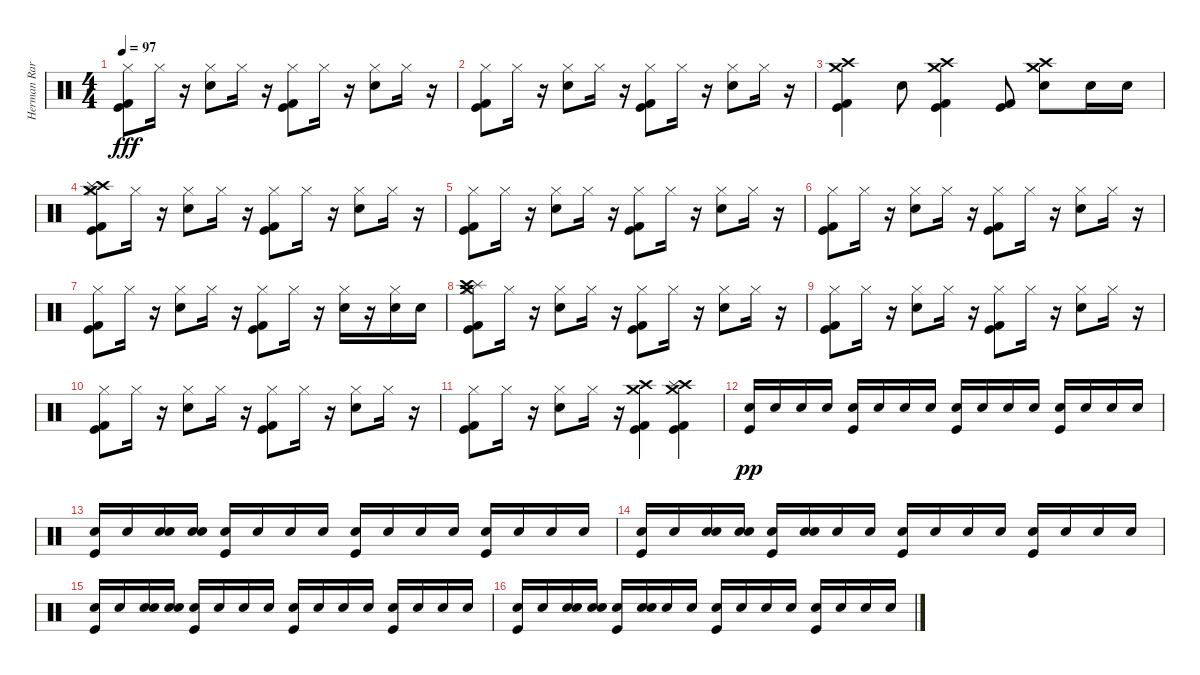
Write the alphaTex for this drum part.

\track ("Herman Rarebel" "Herman Rar") {instrument percussion}
\staff {score}
\articulation defaults
\ts (4 4)
\tempo 97
\clef neutral
\ks c
("Hi-Hat (closed)" "Kick (hit)" "Kick (hit) 2").8{dy fff} "Hi-Hat (closed)".16 r.16 ("Snare (hit) 2" "Hi-Hat (closed)").8 "Hi-Hat (closed)".16 r.16 ("Kick (hit) 2" "Kick (hit)" "Hi-Hat (closed)").8 "Hi-Hat (closed)".16 r.16 ("Snare (hit) 2" "Hi-Hat (closed)").8 "Hi-Hat (closed)".16 r.16 |
("Hi-Hat (closed)" "Kick (hit)" "Kick (hit) 2").8 "Hi-Hat (closed)".16 r.16 ("Snare (hit) 2" "Hi-Hat (closed)").8 "Hi-Hat (closed)".16 r.16 ("Kick (hit) 2" "Kick (hit)" "Hi-Hat (closed)").8 "Hi-Hat (closed)".16 r.16 ("Snare (hit) 2" "Hi-Hat (closed)").8 "Hi-Hat (closed)".16 r.16 |
("Kick (hit) 2" "Kick (hit)" "Crash high (hit)" "Crash medium (hit)").4 "Snare (hit) 2".8 ("Crash medium (hit)" "Crash high (hit)" "Kick (hit)" "Kick (hit) 2").4 ("Kick (hit)" "Kick (hit) 2").8 ("Crash medium (hit)" "Crash high (hit)" "Snare (hit) 2").8 "Snare (hit) 2".16 "Snare (hit) 2".16 |
("Hi-Hat (closed)" "Crash high (hit)" "Splash (hit)" "Crash medium (hit)" "Kick (hit)" "Kick (hit) 2").8 "Hi-Hat (closed)".16 r.16 ("Snare (hit) 2" "Hi-Hat (closed)").8 "Hi-Hat (closed)".16 r.16 ("Kick (hit) 2" "Kick (hit)" "Hi-Hat (closed)").8 "Hi-Hat (closed)".16 r.16 ("Snare (hit) 2" "Hi-Hat (closed)").8 "Hi-Hat (closed)".16 r.16 |
("Hi-Hat (closed)" "Kick (hit)" "Kick (hit) 2").8 "Hi-Hat (closed)".16 r.16 ("Snare (hit) 2" "Hi-Hat (closed)").8 "Hi-Hat (closed)".16 r.16 ("Kick (hit) 2" "Kick (hit)" "Hi-Hat (closed)").8 "Hi-Hat (closed)".16 r.16 ("Snare (hit) 2" "Hi-Hat (closed)").8 "Hi-Hat (closed)".16 r.16 |
("Hi-Hat (closed)" "Kick (hit)" "Kick (hit) 2").8 "Hi-Hat (closed)".16 r.16 ("Snare (hit) 2" "Hi-Hat (closed)").8 "Hi-Hat (closed)".16 r.16 ("Kick (hit) 2" "Kick (hit)" "Hi-Hat (closed)").8 "Hi-Hat (closed)".16 r.16 ("Snare (hit) 2" "Hi-Hat (closed)").8 "Hi-Hat (closed)".16 r.16 |
("Hi-Hat (closed)" "Kick (hit)" "Kick (hit) 2").8 "Hi-Hat (closed)".16 r.16 ("Snare (hit) 2" "Hi-Hat (closed)").8 "Hi-Hat (closed)".16 r.16 ("Kick (hit) 2" "Kick (hit)" "Hi-Hat (closed)").8 "Hi-Hat (closed)".16 r.16 ("Hi-Hat (closed)" "Snare (hit) 2").16 r.16 ("Hi-Hat (closed)" "Snare (hit) 2").16 "Snare (hit) 2".16 |
("Kick (hit) 2" "Kick (hit)" "Crash medium (hit)" "Splash (hit)" "Crash high (hit)" "Hi-Hat (closed)").8 "Hi-Hat (closed)".16 r.16 ("Snare (hit) 2" "Hi-Hat (closed)").8 "Hi-Hat (closed)".16 r.16 ("Kick (hit) 2" "Kick (hit)" "Hi-Hat (closed)").8 "Hi-Hat (closed)".16 r.16 ("Snare (hit) 2" "Hi-Hat (closed)").8 "Hi-Hat (closed)".16 r.16 |
("Hi-Hat (closed)" "Kick (hit)" "Kick (hit) 2").8 "Hi-Hat (closed)".16 r.16 ("Snare (hit) 2" "Hi-Hat (closed)").8 "Hi-Hat (closed)".16 r.16 ("Kick (hit) 2" "Kick (hit)" "Hi-Hat (closed)").8 "Hi-Hat (closed)".16 r.16 ("Snare (hit) 2" "Hi-Hat (closed)").8 "Hi-Hat (closed)".16 r.16 |
("Hi-Hat (closed)" "Kick (hit)" "Kick (hit) 2").8 "Hi-Hat (closed)".16 r.16 ("Snare (hit) 2" "Hi-Hat (closed)").8 "Hi-Hat (closed)".16 r.16 ("Kick (hit) 2" "Kick (hit)" "Hi-Hat (closed)").8 "Hi-Hat (closed)".16 r.16 ("Snare (hit) 2" "Hi-Hat (closed)").8 "Hi-Hat (closed)".16 r.16 |
("Hi-Hat (closed)" "Kick (hit)" "Kick (hit) 2").8 "Hi-Hat (closed)".16 r.16 ("Hi-Hat (closed)" "Snare (hit) 2").8 "Hi-Hat (closed)".16 r.16 ("Kick (hit) 2" "Kick (hit)" "Crash high (hit)" "Crash medium (hit)").4 ("Kick (hit) 2" "Kick (hit)" "Crash high (hit)" "Crash medium (hit)" "Splash (hit)").4 |
("Kick (hit)" "Snare (hit) 2").16{dy pp} "Snare (hit) 2".16 "Snare (hit) 2".16 "Snare (hit) 2".16 ("Kick (hit)" "Snare (hit) 2").16 "Snare (hit) 2".16 "Snare (hit) 2".16 "Snare (hit) 2".16 ("Kick (hit)" "Snare (hit) 2").16 "Snare (hit) 2".16 "Snare (hit) 2".16 "Snare (hit) 2".16 ("Kick (hit)" "Snare (hit) 2").16 "Snare (hit) 2".16 "Snare (hit) 2".16 "Snare (hit) 2".16 |
("Kick (hit)" "Snare (hit) 2").16 "Snare (hit) 2".16 ("Electric Snare (hit)" "Snare (hit) 2").16 ("Electric Snare (hit)" "Snare (hit) 2").16 ("Kick (hit)" "Snare (hit) 2").16 "Snare (hit) 2".16 "Snare (hit) 2".16 "Snare (hit) 2".16 ("Kick (hit)" "Snare (hit) 2").16 "Snare (hit) 2".16 "Snare (hit) 2".16 "Snare (hit) 2".16 ("Kick (hit)" "Snare (hit) 2").16 "Snare (hit) 2".16 "Snare (hit) 2".16 "Snare (hit) 2".16 |
("Kick (hit)" "Snare (hit) 2").16 "Snare (hit) 2".16 ("Electric Snare (hit)" "Snare (hit) 2").16 ("Electric Snare (hit)" "Snare (hit) 2").16 ("Kick (hit)" "Snare (hit) 2").16 ("Electric Snare (hit)" "Snare (hit) 2").16 "Snare (hit) 2".16 "Snare (hit) 2".16 ("Kick (hit)" "Snare (hit) 2").16 "Snare (hit) 2".16 "Snare (hit) 2".16 "Snare (hit) 2".16 ("Kick (hit)" "Snare (hit) 2").16 "Snare (hit) 2".16 "Snare (hit) 2".16 "Snare (hit) 2".16 |
("Kick (hit)" "Snare (hit) 2").16 "Snare (hit) 2".16 ("Electric Snare (hit)" "Snare (hit) 2").16 ("Electric Snare (hit)" "Snare (hit) 2").16 ("Kick (hit)" "Snare (hit) 2").16 "Snare (hit) 2".16 "Snare (hit) 2".16 "Snare (hit) 2".16 ("Kick (hit)" "Snare (hit) 2").16 "Snare (hit) 2".16 "Snare (hit) 2".16 "Snare (hit) 2".16 ("Kick (hit)" "Snare (hit) 2").16 "Snare (hit) 2".16 "Snare (hit) 2".16 "Snare (hit) 2".16 |
("Kick (hit)" "Snare (hit) 2").16 "Snare (hit) 2".16 ("Electric Snare (hit)" "Snare (hit) 2").16 ("Electric Snare (hit)" "Snare (hit) 2").16 ("Kick (hit)" "Snare (hit) 2").16 ("Electric Snare (hit)" "Snare (hit) 2").16 "Snare (hit) 2".16 "Snare (hit) 2".16 ("Kick (hit)" "Snare (hit) 2").16 "Snare (hit) 2".16 "Snare (hit) 2".16 "Snare (hit) 2".16 ("Kick (hit)" "Snare (hit) 2").16 "Snare (hit) 2".16 "Snare (hit) 2".16 "Snare (hit) 2".16
